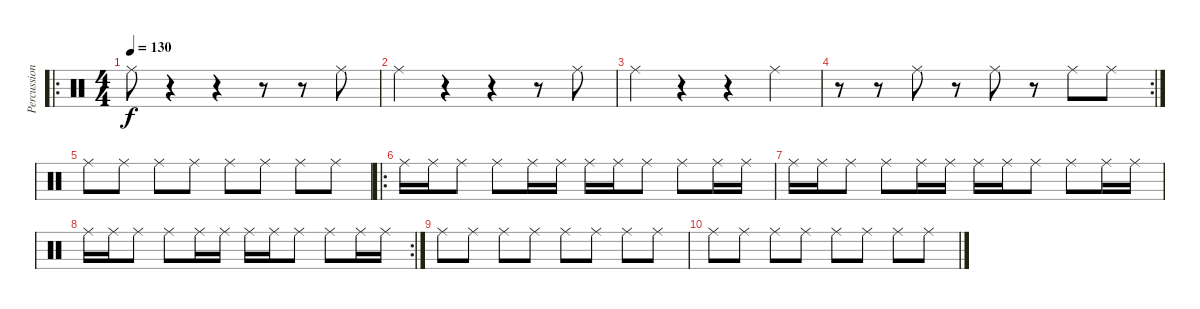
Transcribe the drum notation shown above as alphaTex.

\track ("Percussions" "Percussion") {instrument percussion}
\staff {score}
\articulation defaults
\ro
\ts (4 4)
\tempo 130
\clef neutral
\ks c "Ride (middle)".8{dy f}
r.4 r.4 r.8 r.8 "Ride (middle)".8 |
"Ride (middle)".4 r.4 r.4 r.8 "Ride (middle)".8 |
"Ride (middle)".4 r.4 r.4 "Ride (middle)".4 |
\rc 2
r.8 r.8 "Ride (middle)".8 r.8 "Ride (middle)".8 r.8 "Ride (middle)".8 "Ride (middle)".8 |
"Ride (middle)".8 "Ride (middle)".8 "Ride (middle)".8 "Ride (middle)".8 "Ride (middle)".8 "Ride (middle)".8 "Ride (middle)".8 "Ride (middle)".8 |
\ro "Ride (middle)".16 "Ride (middle)".16 "Ride (middle)".8 "Ride (middle)".8 "Ride (middle)".16 "Ride (middle)".16 "Ride (middle)".16 "Ride (middle)".16 "Ride (middle)".8 "Ride (middle)".8 "Ride (middle)".16 "Ride (middle)".16
|
"Ride (middle)".16 "Ride (middle)".16 "Ride (middle)".8 "Ride (middle)".8 "Ride (middle)".16 "Ride (middle)".16 "Ride (middle)".16 "Ride (middle)".16 "Ride (middle)".8 "Ride (middle)".8 "Ride (middle)".16 "Ride (middle)".16 |
\rc 2 "Ride (middle)".16 "Ride (middle)".16 "Ride (middle)".8 "Ride (middle)".8 "Ride (middle)".16 "Ride (middle)".16 "Ride (middle)".16 "Ride (middle)".16 "Ride (middle)".8 "Ride (middle)".8 "Ride (middle)".16 "Ride (middle)".16
|
"Ride (middle)".8 "Ride (middle)".8 "Ride (middle)".8 "Ride (middle)".8 "Ride (middle)".8 "Ride (middle)".8 "Ride (middle)".8 "Ride (middle)".8 |
"Ride (middle)".8 "Ride (middle)".8 "Ride (middle)".8 "Ride (middle)".8 "Ride (middle)".8 "Ride (middle)".8 "Ride (middle)".8 "Ride (middle)".8
